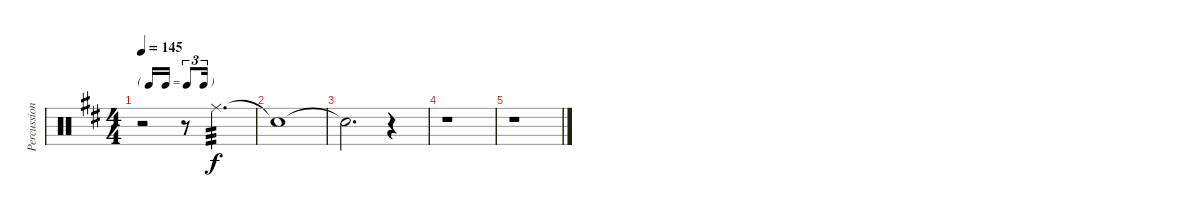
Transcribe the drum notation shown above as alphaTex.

\track ("Percussion" "Percussion") {instrument percussion}
\staff {score}
\articulation defaults
\ts (4 4)
\tf triplet16th
\tempo 145
\clef neutral
\ks d
r.2{dy f} r.8{volume 0} "Ride (middle)".4{d tp 3 volume 16} |
"Snare (hit)"{t}.1 |
"Snare (hit)"{t}.2{d} r.4 |
r.1 |
r.1
